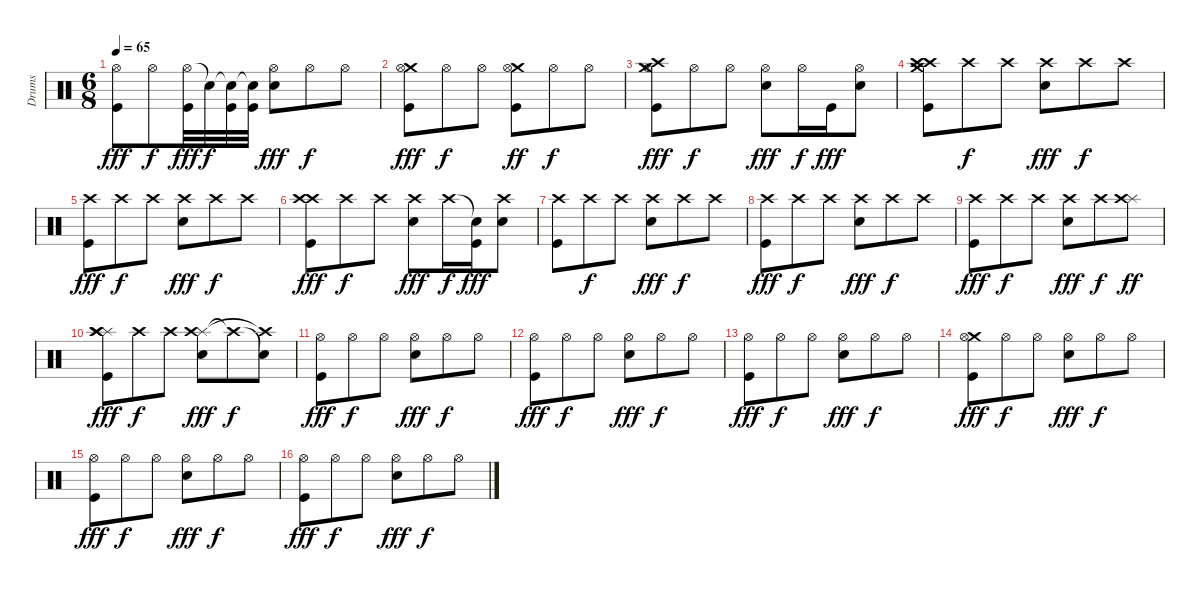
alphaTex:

\track ("Drums" "Drums") {instrument percussion}
\staff {score}
\articulation defaults
\ts (6 8)
\tempo 65
\clef neutral
\ks c
("Hi-Hat (open)" "Kick (hit)").8{dy fff} "Hi-Hat (open)".8{dy f} ("Hi-Hat (open)" "Kick (hit)").32{dy fff} "Snare (hit)"{t}.32{dy f} ("Snare (hit)"{t} "Kick (hit)").32 ("Snare (hit)"{t} "Kick (hit)").32 ("Hi-Hat (open)" "Snare (hit) 2").8{dy fff} "Hi-Hat (open)".8{dy f} "Hi-Hat (open)".8 |
("Crash medium (hit)" "Hi-Hat (open)" "Kick (hit)").8{dy fff} "Hi-Hat (open)".8{dy f} "Hi-Hat (open)".8 ("Crash medium (hit)" "Hi-Hat (open)" "Kick (hit)").8{dy ff} "Hi-Hat (open)".8{dy f} "Hi-Hat (open)".8 |
("Crash medium (hit)" "Crash high (hit)" "Hi-Hat (open)" "Kick (hit)").8{dy fff} "Hi-Hat (open)".8{dy f} "Hi-Hat (open)".8 ("Hi-Hat (open)" "Snare (hit) 2").8{dy fff} "Hi-Hat (open)".16{dy f} "Kick (hit)".16{dy fff} ("Hi-Hat (open)" "Snare (hit) 2").8 |
("Crash medium (hit)" "Crash high (hit)" "Crash high (hit)" "Kick (hit)").8 "Crash high (hit)".8{dy f} "Crash high (hit)".8 ("Crash high (hit)" "Snare (hit) 2").8{dy fff} "Crash high (hit)".8{dy f} "Crash high (hit)".8 |
("Crash high (hit)" "Kick (hit)").8{dy fff} "Crash high (hit)".8{dy f} "Crash high (hit)".8 ("Crash high (hit)" "Snare (hit) 2").8{dy fff} "Crash high (hit)".8{dy f} "Crash high (hit)".8 |
("Crash high (hit)" "Crash high (hit)" "Kick (hit)").8{dy fff} "Crash high (hit)".8{dy f} "Crash high (hit)".8 ("Crash high (hit)" "Snare (hit) 2").8{dy fff} "Crash high (hit)".16{dy f} ("Snare (hit)"{t} "Kick (hit)").16{dy fff} ("Crash high (hit)" "Snare (hit) 2").8 |
("Crash high (hit)" "Kick (hit)").8 "Crash high (hit)".8{dy f} "Crash high (hit)".8 ("Crash high (hit)" "Snare (hit) 2").8{dy fff} "Crash high (hit)".8{dy f} "Crash high (hit)".8 |
("Crash high (hit)" "Kick (hit)").8{dy fff} "Crash high (hit)".8{dy f} "Crash high (hit)".8 ("Crash high (hit)" "Snare (hit) 2").8{dy fff} "Crash high (hit)".8{dy f} "Crash high (hit)".8 |
("Crash high (hit)" "Kick (hit)").8{dy fff} "Crash high (hit)".8{dy f} "Crash high (hit)".8 ("Crash high (hit)" "Snare (hit) 2").8{dy fff} "Crash high (hit)".8{dy f} ("Splash (hit)" "Crash high (hit)").8{dy ff} |
("Splash (hit)" "Crash high (hit)" "Crash high (hit)" "Kick (hit)").8{dy fff} "Crash high (hit)".8{dy f} "Crash high (hit)".8 ("Splash (hit)" "Crash high (hit)" "Snare (hit) 2").8{dy fff} "Crash high (hit)"{t}.8{dy f} ("Snare (hit)"{t} "Crash high (hit)"{t}).8 |
("Hi-Hat (open)" "Kick (hit)").8{dy fff} "Hi-Hat (open)".8{dy f} "Hi-Hat (open)".8 ("Hi-Hat (open)" "Snare (hit) 2").8{dy fff} "Hi-Hat (open)".8{dy f} "Hi-Hat (open)".8 |
("Hi-Hat (open)" "Kick (hit)").8{dy fff} "Hi-Hat (open)".8{dy f} "Hi-Hat (open)".8 ("Hi-Hat (open)" "Snare (hit) 2").8{dy fff} "Hi-Hat (open)".8{dy f} "Hi-Hat (open)".8 |
("Hi-Hat (open)" "Kick (hit)").8{dy fff} "Hi-Hat (open)".8{dy f} "Hi-Hat (open)".8 ("Hi-Hat (open)" "Snare (hit) 2").8{dy fff} "Hi-Hat (open)".8{dy f} "Hi-Hat (open)".8 |
("Crash medium (hit)" "Hi-Hat (open)" "Kick (hit)").8{dy fff} "Hi-Hat (open)".8{dy f} "Hi-Hat (open)".8 ("Hi-Hat (open)" "Snare (hit) 2").8{dy fff} "Hi-Hat (open)".8{dy f} "Hi-Hat (open)".8 |
("Hi-Hat (open)" "Kick (hit)").8{dy fff} "Hi-Hat (open)".8{dy f} "Hi-Hat (open)".8 ("Hi-Hat (open)" "Snare (hit) 2").8{dy fff} "Hi-Hat (open)".8{dy f} "Hi-Hat (open)".8 |
("Hi-Hat (open)" "Kick (hit)").8{dy fff} "Hi-Hat (open)".8{dy f} "Hi-Hat (open)".8 ("Hi-Hat (open)" "Snare (hit) 2").8{dy fff} "Hi-Hat (open)".8{dy f} "Hi-Hat (open)".8
